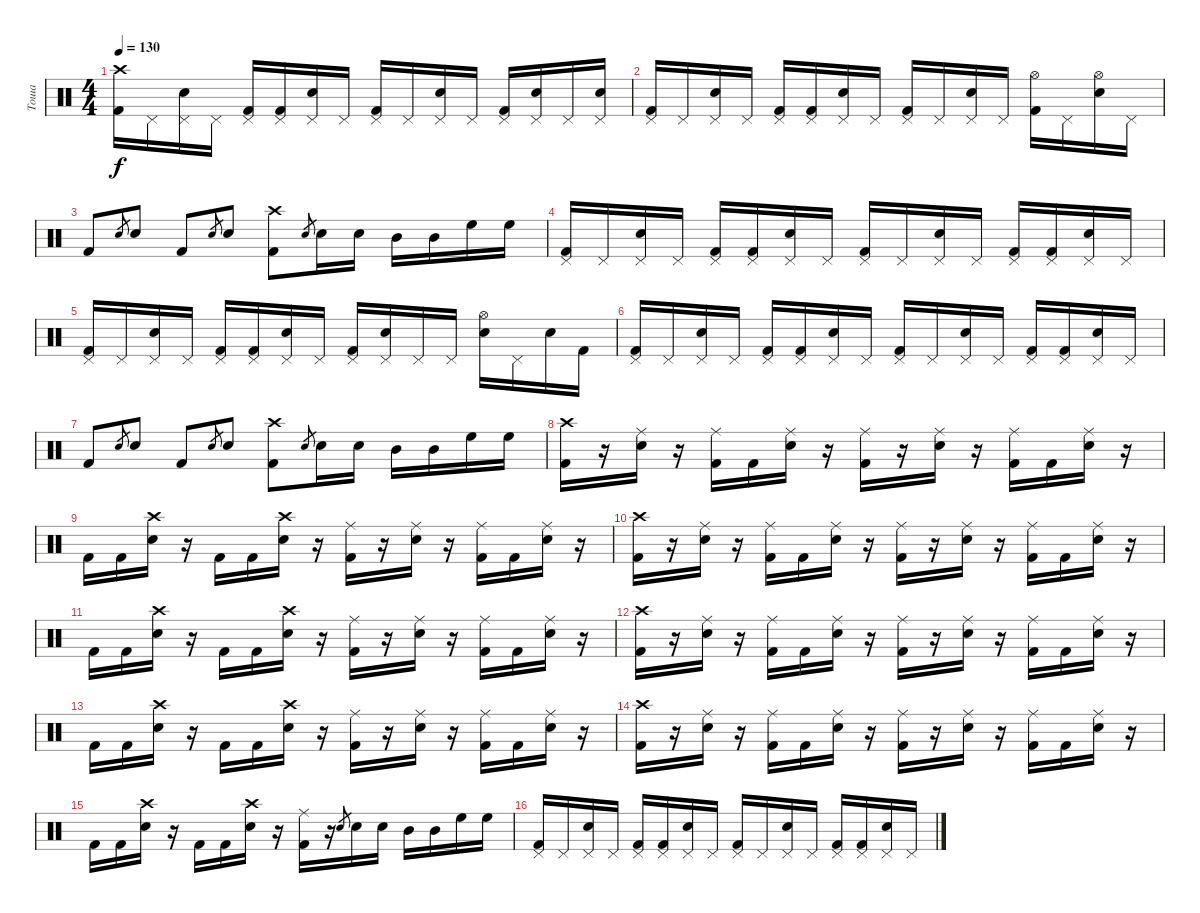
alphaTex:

\track ("Тоша" "Тоша") {solo instrument percussion}
\staff {score}
\articulation defaults
\ts (4 4)
\tempo 130
\clef neutral
\ks c
("Kick (hit) 2" "Crash high (hit)").16{dy f} "Pedal Hi-Hat (hit)".16 ("Electric Snare (hit)" "Pedal Hi-Hat (hit)").16 "Pedal Hi-Hat (hit)".16 ("Kick (hit) 2" "Pedal Hi-Hat (hit)").16 ("Kick (hit) 2" "Pedal Hi-Hat (hit)").16 ("Electric Snare (hit)" "Pedal Hi-Hat (hit)").16 "Pedal Hi-Hat (hit)".16 ("Kick (hit) 2" "Pedal Hi-Hat (hit)").16 "Pedal Hi-Hat (hit)".16 ("Electric Snare (hit)" "Pedal Hi-Hat (hit)").16 "Pedal Hi-Hat (hit)".16 ("Kick (hit) 2" "Pedal Hi-Hat (hit)").16 ("Electric Snare (hit)" "Pedal Hi-Hat (hit)").16 "Pedal Hi-Hat (hit)".16 ("Electric Snare (hit)" "Pedal Hi-Hat (hit)").16 |
("Kick (hit) 2" "Pedal Hi-Hat (hit)").16 "Pedal Hi-Hat (hit)".16 ("Electric Snare (hit)" "Pedal Hi-Hat (hit)").16 "Pedal Hi-Hat (hit)".16 ("Kick (hit) 2" "Pedal Hi-Hat (hit)").16 ("Kick (hit) 2" "Pedal Hi-Hat (hit)").16 ("Electric Snare (hit)" "Pedal Hi-Hat (hit)").16 "Pedal Hi-Hat (hit)".16 ("Kick (hit) 2" "Pedal Hi-Hat (hit)").16 "Pedal Hi-Hat (hit)".16 ("Electric Snare (hit)" "Pedal Hi-Hat (hit)").16 "Pedal Hi-Hat (hit)".16 ("Kick (hit) 2" "Hi-Hat (open)").16 "Pedal Hi-Hat (hit)".16 ("Electric Snare (hit)" "Hi-Hat (open)").16 "Pedal Hi-Hat (hit)".16 |
"Kick (hit) 2".8 "Electric Snare (hit)".8{gr} "Electric Snare (hit)".8 "Kick (hit) 2".8 "Electric Snare (hit)".8{gr} "Electric Snare (hit)".8 ("Kick (hit) 2" "Crash high (hit)").8 "Electric Snare (hit)".8{gr} "Electric Snare (hit)".16 "Electric Snare (hit)".16 "Mid Tom (hit)".16 "Mid Tom (hit)".16 "High Floor Tom (hit)".16 "High Floor Tom (hit)".16 |
("Kick (hit) 2" "Pedal Hi-Hat (hit)").16 "Pedal Hi-Hat (hit)".16 ("Electric Snare (hit)" "Pedal Hi-Hat (hit)").16 "Pedal Hi-Hat (hit)".16 ("Kick (hit) 2" "Pedal Hi-Hat (hit)").16 ("Kick (hit) 2" "Pedal Hi-Hat (hit)").16 ("Electric Snare (hit)" "Pedal Hi-Hat (hit)").16 "Pedal Hi-Hat (hit)".16 ("Kick (hit) 2" "Pedal Hi-Hat (hit)").16 "Pedal Hi-Hat (hit)".16 ("Electric Snare (hit)" "Pedal Hi-Hat (hit)").16 "Pedal Hi-Hat (hit)".16 ("Kick (hit) 2" "Pedal Hi-Hat (hit)").16 ("Kick (hit) 2" "Pedal Hi-Hat (hit)").16 ("Electric Snare (hit)" "Pedal Hi-Hat (hit)").16 "Pedal Hi-Hat (hit)".16 |
("Kick (hit) 2" "Pedal Hi-Hat (hit)").16 "Pedal Hi-Hat (hit)".16 ("Electric Snare (hit)" "Pedal Hi-Hat (hit)").16 "Pedal Hi-Hat (hit)".16 ("Kick (hit) 2" "Pedal Hi-Hat (hit)").16 ("Kick (hit) 2" "Pedal Hi-Hat (hit)").16 ("Electric Snare (hit)" "Pedal Hi-Hat (hit)").16 "Pedal Hi-Hat (hit)".16 ("Kick (hit) 2" "Pedal Hi-Hat (hit)").16 ("Electric Snare (hit)" "Pedal Hi-Hat (hit)").16 "Pedal Hi-Hat (hit)".16 "Pedal Hi-Hat (hit)".16 ("Electric Snare (hit)" "Hi-Hat (open)").16 "Pedal Hi-Hat (hit)".16 "Electric Snare (hit)".16 "Kick (hit) 2".16 |
("Kick (hit) 2" "Pedal Hi-Hat (hit)").16 "Pedal Hi-Hat (hit)".16 ("Electric Snare (hit)" "Pedal Hi-Hat (hit)").16 "Pedal Hi-Hat (hit)".16 ("Kick (hit) 2" "Pedal Hi-Hat (hit)").16 ("Kick (hit) 2" "Pedal Hi-Hat (hit)").16 ("Electric Snare (hit)" "Pedal Hi-Hat (hit)").16 "Pedal Hi-Hat (hit)".16 ("Kick (hit) 2" "Pedal Hi-Hat (hit)").16 "Pedal Hi-Hat (hit)".16 ("Electric Snare (hit)" "Pedal Hi-Hat (hit)").16 "Pedal Hi-Hat (hit)".16 ("Kick (hit) 2" "Pedal Hi-Hat (hit)").16 ("Kick (hit) 2" "Pedal Hi-Hat (hit)").16 ("Electric Snare (hit)" "Pedal Hi-Hat (hit)").16 "Pedal Hi-Hat (hit)".16 |
"Kick (hit) 2".8 "Electric Snare (hit)".8{gr} "Electric Snare (hit)".8 "Kick (hit) 2".8 "Electric Snare (hit)".8{gr} "Electric Snare (hit)".8 ("Kick (hit) 2" "Crash high (hit)").8 "Electric Snare (hit)".8{gr} "Electric Snare (hit)".16 "Electric Snare (hit)".16 "Mid Tom (hit)".16 "Mid Tom (hit)".16 "High Floor Tom (hit)".16 "High Floor Tom (hit)".16 |
("Kick (hit) 2" "Crash high (hit)").16 r.16 ("Electric Snare (hit)" "Ride (middle)").16 r.16 ("Kick (hit) 2" "Ride (middle)").16 "Kick (hit) 2".16 ("Electric Snare (hit)" "Ride (middle)").16 r.16 ("Kick (hit) 2" "Ride (middle)").16 r.16 ("Electric Snare (hit)" "Ride (middle)").16 r.16 ("Kick (hit) 2" "Ride (middle)").16 "Kick (hit) 2".16 ("Electric Snare (hit)" "Ride (middle)").16 r.16 |
"Kick (hit) 2".16 "Kick (hit) 2".16 ("Electric Snare (hit)" "Crash high (hit)").16 r.16 "Kick (hit) 2".16 "Kick (hit) 2".16 ("Electric Snare (hit)" "Crash high (hit)").16 r.16 ("Kick (hit) 2" "Ride (middle)").16 r.16 ("Electric Snare (hit)" "Ride (middle)").16 r.16 ("Kick (hit) 2" "Ride (middle)").16 "Kick (hit) 2".16 ("Electric Snare (hit)" "Ride (middle)").16 r.16 |
("Kick (hit) 2" "Crash high (hit)").16 r.16 ("Electric Snare (hit)" "Ride (middle)").16 r.16 ("Kick (hit) 2" "Ride (middle)").16 "Kick (hit) 2".16 ("Electric Snare (hit)" "Ride (middle)").16 r.16 ("Kick (hit) 2" "Ride (middle)").16 r.16 ("Electric Snare (hit)" "Ride (middle)").16 r.16 ("Kick (hit) 2" "Ride (middle)").16 "Kick (hit) 2".16 ("Electric Snare (hit)" "Ride (middle)").16 r.16 |
"Kick (hit) 2".16 "Kick (hit) 2".16 ("Electric Snare (hit)" "Crash high (hit)").16 r.16 "Kick (hit) 2".16 "Kick (hit) 2".16 ("Electric Snare (hit)" "Crash high (hit)").16 r.16 ("Kick (hit) 2" "Ride (middle)").16 r.16 ("Electric Snare (hit)" "Ride (middle)").16 r.16 ("Kick (hit) 2" "Ride (middle)").16 "Kick (hit) 2".16 ("Electric Snare (hit)" "Ride (middle)").16 r.16 |
("Kick (hit) 2" "Crash high (hit)").16 r.16 ("Electric Snare (hit)" "Ride (middle)").16 r.16 ("Kick (hit) 2" "Ride (middle)").16 "Kick (hit) 2".16 ("Electric Snare (hit)" "Ride (middle)").16 r.16 ("Kick (hit) 2" "Ride (middle)").16 r.16 ("Electric Snare (hit)" "Ride (middle)").16 r.16 ("Kick (hit) 2" "Ride (middle)").16 "Kick (hit) 2".16 ("Electric Snare (hit)" "Ride (middle)").16 r.16 |
"Kick (hit) 2".16 "Kick (hit) 2".16 ("Electric Snare (hit)" "Crash high (hit)").16 r.16 "Kick (hit) 2".16 "Kick (hit) 2".16 ("Electric Snare (hit)" "Crash high (hit)").16 r.16 ("Kick (hit) 2" "Ride (middle)").16 r.16 ("Electric Snare (hit)" "Ride (middle)").16 r.16 ("Kick (hit) 2" "Ride (middle)").16 "Kick (hit) 2".16 ("Electric Snare (hit)" "Ride (middle)").16 r.16 |
("Kick (hit) 2" "Crash high (hit)").16 r.16 ("Electric Snare (hit)" "Ride (middle)").16 r.16 ("Kick (hit) 2" "Ride (middle)").16 "Kick (hit) 2".16 ("Electric Snare (hit)" "Ride (middle)").16 r.16 ("Kick (hit) 2" "Ride (middle)").16 r.16 ("Electric Snare (hit)" "Ride (middle)").16 r.16 ("Kick (hit) 2" "Ride (middle)").16 "Kick (hit) 2".16 ("Electric Snare (hit)" "Ride (middle)").16 r.16 |
"Kick (hit) 2".16 "Kick (hit) 2".16 ("Electric Snare (hit)" "Crash high (hit)").16 r.16 "Kick (hit) 2".16 "Kick (hit) 2".16 ("Electric Snare (hit)" "Crash high (hit)").16 r.16 ("Kick (hit) 2" "Ride (middle)").16 r.16 "Electric Snare (hit)".8{gr} "Electric Snare (hit)".16 "Electric Snare (hit)".16 "Mid Tom (hit)".16 "Mid Tom (hit)".16 "High Floor Tom (hit)".16 "High Floor Tom (hit)".16 |
("Kick (hit) 2" "Pedal Hi-Hat (hit)").16 "Pedal Hi-Hat (hit)".16 ("Electric Snare (hit)" "Pedal Hi-Hat (hit)").16 "Pedal Hi-Hat (hit)".16 ("Kick (hit) 2" "Pedal Hi-Hat (hit)").16 ("Kick (hit) 2" "Pedal Hi-Hat (hit)").16 ("Electric Snare (hit)" "Pedal Hi-Hat (hit)").16 "Pedal Hi-Hat (hit)".16 ("Kick (hit) 2" "Pedal Hi-Hat (hit)").16 "Pedal Hi-Hat (hit)".16 ("Electric Snare (hit)" "Pedal Hi-Hat (hit)").16 "Pedal Hi-Hat (hit)".16 ("Kick (hit) 2" "Pedal Hi-Hat (hit)").16 ("Kick (hit) 2" "Pedal Hi-Hat (hit)").16 ("Electric Snare (hit)" "Pedal Hi-Hat (hit)").16 "Pedal Hi-Hat (hit)".16
